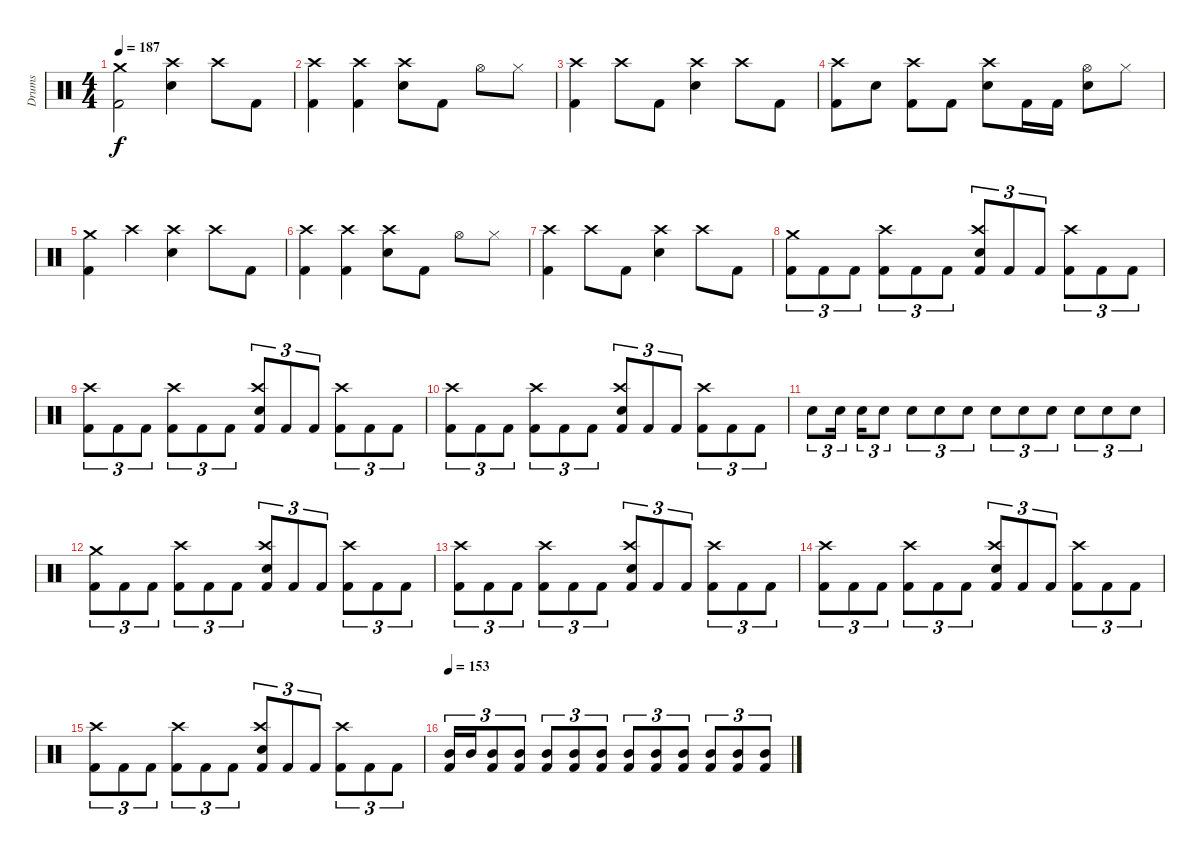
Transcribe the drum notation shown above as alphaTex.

\track ("Drums" "Drums") {instrument percussion}
\staff
\articulation defaults
\ts (4 4)
\tempo 187
\clef neutral
\ks c
("Crash medium (hit)" "Kick (hit) 2").2{dy f} ("Crash high (hit)" "Electric Snare (hit)").4 "Crash high (hit)".8 "Kick (hit) 2".8 |
("Crash high (hit)" "Kick (hit) 2").4 ("Crash high (hit)" "Kick (hit) 2").4 ("Crash high (hit)" "Electric Snare (hit)").8 "Kick (hit) 2".8 "Hi-Hat (open)".8 "Hi-Hat (closed)".8 |
("Crash high (hit)" "Kick (hit) 2").4 "Crash high (hit)".8 "Kick (hit) 2".8 ("Crash high (hit)" "Electric Snare (hit)").4 "Crash high (hit)".8 "Kick (hit) 2".8 |
("Crash high (hit)" "Kick (hit) 2").8 "Electric Snare (hit)".8 ("Crash high (hit)" "Kick (hit) 2").8 "Kick (hit) 2".8 ("Crash high (hit)" "Electric Snare (hit)").8 "Kick (hit) 2".16 "Kick (hit) 2".16 ("Hi-Hat (open)" "Electric Snare (hit)").8 "Hi-Hat (closed)".8 |
("Crash medium (hit)" "Kick (hit) 2").4 "Crash high (hit)".4 ("Crash high (hit)" "Electric Snare (hit)").4 "Crash high (hit)".8 "Kick (hit) 2".8 |
("Crash high (hit)" "Kick (hit) 2").4 ("Crash high (hit)" "Kick (hit) 2").4 ("Crash high (hit)" "Electric Snare (hit)").8 "Kick (hit) 2".8 "Hi-Hat (open)".8 "Hi-Hat (closed)".8 |
("Crash high (hit)" "Kick (hit) 2").4 "Crash high (hit)".8 "Kick (hit) 2".8 ("Crash high (hit)" "Electric Snare (hit)").4 "Crash high (hit)".8 "Kick (hit) 2".8 |
("Crash medium (hit)" "Kick (hit) 2").8{tu (3 2)} "Kick (hit) 2".8{tu (3 2)} "Kick (hit) 2".8{tu (3 2)} ("Crash high (hit)" "Kick (hit) 2").8{tu (3 2)} "Kick (hit) 2".8{tu (3 2)} "Kick (hit) 2".8{tu (3 2)} ("Crash high (hit)" "Electric Snare (hit)" "Kick (hit) 2").8{tu (3 2)} "Kick (hit) 2".8{tu (3 2)} "Kick (hit) 2".8{tu (3 2)} ("Crash high (hit)" "Kick (hit) 2").8{tu (3 2)} "Kick (hit) 2".8{tu (3 2)} "Kick (hit) 2".8{tu (3 2)} |
("Crash high (hit)" "Kick (hit) 2").8{tu (3 2)} "Kick (hit) 2".8{tu (3 2)} "Kick (hit) 2".8{tu (3 2)} ("Crash high (hit)" "Kick (hit) 2").8{tu (3 2)} "Kick (hit) 2".8{tu (3 2)} "Kick (hit) 2".8{tu (3 2)} ("Crash high (hit)" "Electric Snare (hit)" "Kick (hit) 2").8{tu (3 2)} "Kick (hit) 2".8{tu (3 2)} "Kick (hit) 2".8{tu (3 2)} ("Crash high (hit)" "Kick (hit) 2").8{tu (3 2)} "Kick (hit) 2".8{tu (3 2)} "Kick (hit) 2".8{tu (3 2)} |
("Crash high (hit)" "Kick (hit) 2").8{tu (3 2)} "Kick (hit) 2".8{tu (3 2)} "Kick (hit) 2".8{tu (3 2)} ("Crash high (hit)" "Kick (hit) 2").8{tu (3 2)} "Kick (hit) 2".8{tu (3 2)} "Kick (hit) 2".8{tu (3 2)} ("Crash high (hit)" "Electric Snare (hit)" "Kick (hit) 2").8{tu (3 2)} "Kick (hit) 2".8{tu (3 2)} "Kick (hit) 2".8{tu (3 2)} ("Crash high (hit)" "Kick (hit) 2").8{tu (3 2)} "Kick (hit) 2".8{tu (3 2)} "Kick (hit) 2".8{tu (3 2)} |
"Electric Snare (hit)".8{tu (3 2)} "Electric Snare (hit)".16{tu (3 2) beam splitsecondary} "Electric Snare (hit)".16{tu (3 2)} "Electric Snare (hit)".8{tu (3 2)} "Electric Snare (hit)".8{tu (3 2)} "Electric Snare (hit)".8{tu (3 2)} "Electric Snare (hit)".8{tu (3 2)} "Electric Snare (hit)".8{tu (3 2)} "Electric Snare (hit)".8{tu (3 2)} "Electric Snare (hit)".8{tu (3 2)} "Electric Snare (hit)".8{tu (3 2)} "Electric Snare (hit)".8{tu (3 2)} "Electric Snare (hit)".8{tu (3 2)} |
("Crash medium (hit)" "Kick (hit) 2").8{tu (3 2)} "Kick (hit) 2".8{tu (3 2)} "Kick (hit) 2".8{tu (3 2)} ("Crash high (hit)" "Kick (hit) 2").8{tu (3 2)} "Kick (hit) 2".8{tu (3 2)} "Kick (hit) 2".8{tu (3 2)} ("Crash high (hit)" "Electric Snare (hit)" "Kick (hit) 2").8{tu (3 2)} "Kick (hit) 2".8{tu (3 2)} "Kick (hit) 2".8{tu (3 2)} ("Crash high (hit)" "Kick (hit) 2").8{tu (3 2)} "Kick (hit) 2".8{tu (3 2)} "Kick (hit) 2".8{tu (3 2)} |
("Crash high (hit)" "Kick (hit) 2").8{tu (3 2)} "Kick (hit) 2".8{tu (3 2)} "Kick (hit) 2".8{tu (3 2)} ("Crash high (hit)" "Kick (hit) 2").8{tu (3 2)} "Kick (hit) 2".8{tu (3 2)} "Kick (hit) 2".8{tu (3 2)} ("Crash high (hit)" "Electric Snare (hit)" "Kick (hit) 2").8{tu (3 2)} "Kick (hit) 2".8{tu (3 2)} "Kick (hit) 2".8{tu (3 2)} ("Crash high (hit)" "Kick (hit) 2").8{tu (3 2)} "Kick (hit) 2".8{tu (3 2)} "Kick (hit) 2".8{tu (3 2)} |
("Crash high (hit)" "Kick (hit) 2").8{tu (3 2)} "Kick (hit) 2".8{tu (3 2)} "Kick (hit) 2".8{tu (3 2)} ("Crash high (hit)" "Kick (hit) 2").8{tu (3 2)} "Kick (hit) 2".8{tu (3 2)} "Kick (hit) 2".8{tu (3 2)} ("Crash high (hit)" "Electric Snare (hit)" "Kick (hit) 2").8{tu (3 2)} "Kick (hit) 2".8{tu (3 2)} "Kick (hit) 2".8{tu (3 2)} ("Crash high (hit)" "Kick (hit) 2").8{tu (3 2)} "Kick (hit) 2".8{tu (3 2)} "Kick (hit) 2".8{tu (3 2)} |
("Crash high (hit)" "Kick (hit) 2").8{tu (3 2)} "Kick (hit) 2".8{tu (3 2)} "Kick (hit) 2".8{tu (3 2)} ("Crash high (hit)" "Kick (hit) 2").8{tu (3 2)} "Kick (hit) 2".8{tu (3 2)} "Kick (hit) 2".8{tu (3 2)} ("Crash high (hit)" "Electric Snare (hit)" "Kick (hit) 2").8{tu (3 2)} "Kick (hit) 2".8{tu (3 2)} "Kick (hit) 2".8{tu (3 2)} ("Crash high (hit)" "Kick (hit) 2").8{tu (3 2)} "Kick (hit) 2".8{tu (3 2)} "Kick (hit) 2".8{tu (3 2)} |
\tempo 153
("Mid Tom (hit)" "Kick (hit) 2").16{tu (3 2)} "Mid Tom (hit)".16{tu (3 2)} ("Mid Tom (hit)" "Kick (hit) 2").8{tu (3 2)} ("Mid Tom (hit)" "Kick (hit) 2").8{tu (3 2)} ("Mid Tom (hit)" "Kick (hit) 2").8{tu (3 2)} ("Mid Tom (hit)" "Kick (hit) 2").8{tu (3 2)} ("Mid Tom (hit)" "Kick (hit) 2").8{tu (3 2)} ("Mid Tom (hit)" "Kick (hit) 2").8{tu (3 2)} ("Mid Tom (hit)" "Kick (hit) 2").8{tu (3 2)} ("Mid Tom (hit)" "Kick (hit) 2").8{tu (3 2)} ("Mid Tom (hit)" "Kick (hit) 2").8{tu (3 2)} ("Mid Tom (hit)" "Kick (hit) 2").8{tu (3 2)} ("Mid Tom (hit)" "Kick (hit) 2").8{tu (3 2)}
